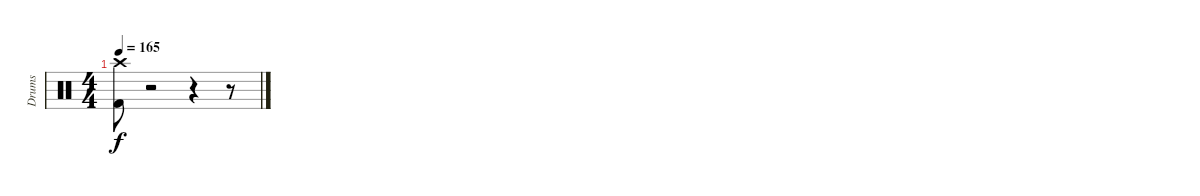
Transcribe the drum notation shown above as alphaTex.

\track ("Drums" "Drums") {instrument percussion}
\staff {score}
\articulation defaults
\ts (4 4)
\tempo 165
\clef neutral
\ks c
("Kick (hit) 2" "Crash high (hit)").8{dy f} r.2 r.4 r.8
